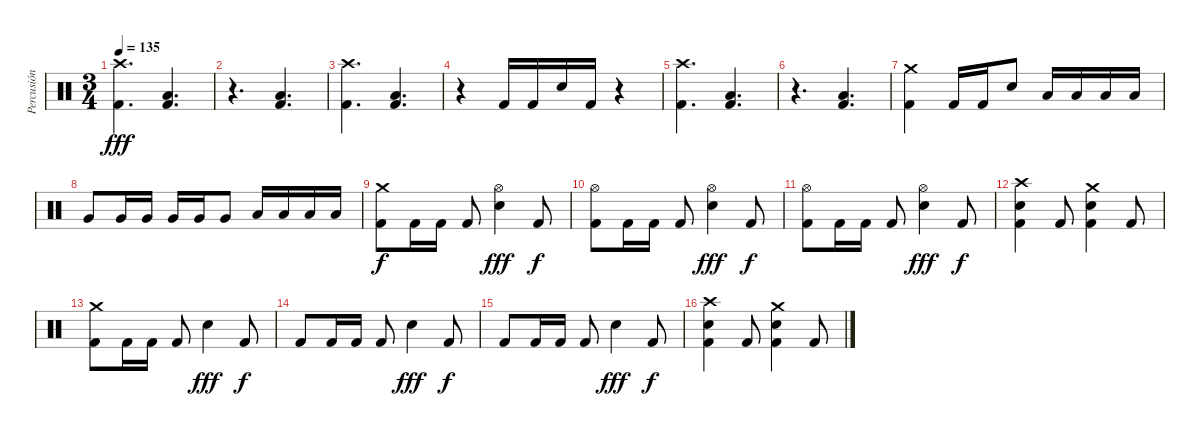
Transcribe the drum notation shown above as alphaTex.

\track ("Percusión" "Percusión") {instrument percussion}
\staff {score}
\articulation defaults
\ts (3 4)
\tempo 135
\clef neutral
\ks c
("Crash high (hit)" "Kick (hit) 2").4{d dy fff} ("Low Floor Tom (hit)" "Kick (hit) 2").4{d} |
r.4{d} ("Low Floor Tom (hit)" "Kick (hit) 2").4{d} |
("Crash high (hit)" "Kick (hit) 2").4{d} ("Low Floor Tom (hit)" "Kick (hit) 2").4{d} |
r.4 "Kick (hit) 2".16 "Kick (hit) 2".16 "Electric Snare (hit)".16 "Kick (hit) 2".16 r.4 |
("Crash high (hit)" "Kick (hit) 2").4{d} ("Low Floor Tom (hit)" "Kick (hit) 2").4{d} |
r.4{d} ("Low Floor Tom (hit)" "Kick (hit) 2").4{d} |
("Crash medium (hit)" "Kick (hit) 2").4 "Kick (hit) 2".16 "Kick (hit) 2".16 "Electric Snare (hit)".8 "Low Tom (hit)".16 "Low Tom (hit)".16 "Low Tom (hit)".16 "Low Tom (hit)".16 |
"Very Low Tom (hit)".8 "Very Low Tom (hit)".16 "Very Low Tom (hit)".16 "Very Low Tom (hit)".16 "Very Low Tom (hit)".16 "Very Low Tom (hit)".8 "Low Floor Tom (hit)".16 "Low Floor Tom (hit)".16 "Low Floor Tom (hit)".16 "Low Floor Tom (hit)".16 |
("Crash medium (hit)" "Kick (hit) 2").8{dy f} "Kick (hit) 2".16 "Kick (hit) 2".16 "Kick (hit) 2".8 ("Hi-Hat (open)" "Electric Snare (hit)").4{dy fff} "Kick (hit) 2".8{dy f} |
("Hi-Hat (open)" "Kick (hit) 2").8 "Kick (hit) 2".16 "Kick (hit) 2".16 "Kick (hit) 2".8 ("Hi-Hat (open)" "Electric Snare (hit)").4{dy fff} "Kick (hit) 2".8{dy f} |
("Hi-Hat (open)" "Kick (hit) 2").8 "Kick (hit) 2".16 "Kick (hit) 2".16 "Kick (hit) 2".8 ("Hi-Hat (open)" "Electric Snare (hit)").4{dy fff} "Kick (hit) 2".8{dy f} |
("Crash high (hit)" "Electric Snare (hit)" "Kick (hit) 2").4 "Kick (hit) 2".8 ("Crash medium (hit)" "Electric Snare (hit)" "Kick (hit) 2").4 "Kick (hit) 2".8 |
("Crash medium (hit)" "Kick (hit) 2").8 "Kick (hit) 2".16 "Kick (hit) 2".16 "Kick (hit) 2".8 "Electric Snare (hit)".4{dy fff} "Kick (hit) 2".8{dy f} |
"Kick (hit) 2".8 "Kick (hit) 2".16 "Kick (hit) 2".16 "Kick (hit) 2".8 "Electric Snare (hit)".4{dy fff} "Kick (hit) 2".8{dy f} |
"Kick (hit) 2".8 "Kick (hit) 2".16 "Kick (hit) 2".16 "Kick (hit) 2".8 "Electric Snare (hit)".4{dy fff} "Kick (hit) 2".8{dy f} |
("Crash high (hit)" "Electric Snare (hit)" "Kick (hit) 2").4 "Kick (hit) 2".8 ("Crash medium (hit)" "Electric Snare (hit)" "Kick (hit) 2").4 "Kick (hit) 2".8
